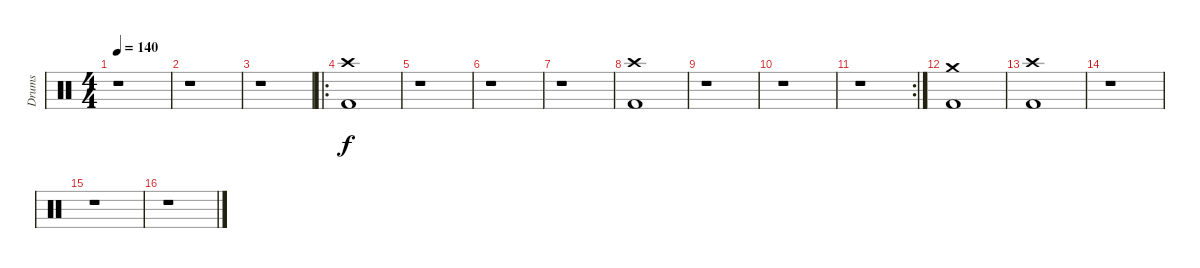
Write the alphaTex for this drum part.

\track ("Drums" "Drums") {instrument percussion}
\staff {score}
\articulation defaults
\ts (4 4)
\tempo 140
\clef neutral
\ks c
r.1{dy f} |
r.1 |
r.1 |
\ro
("Crash high (hit)" "Kick (hit) 2").1 |
r.1 |
r.1 |
r.1 |
("Crash high (hit)" "Kick (hit) 2").1 |
r.1 |
r.1 |
\rc 2
r.1 |
("Crash medium (hit)" "Kick (hit) 2").1 |
("Crash high (hit)" "Kick (hit) 2").1 |
r.1 |
r.1 |
r.1
